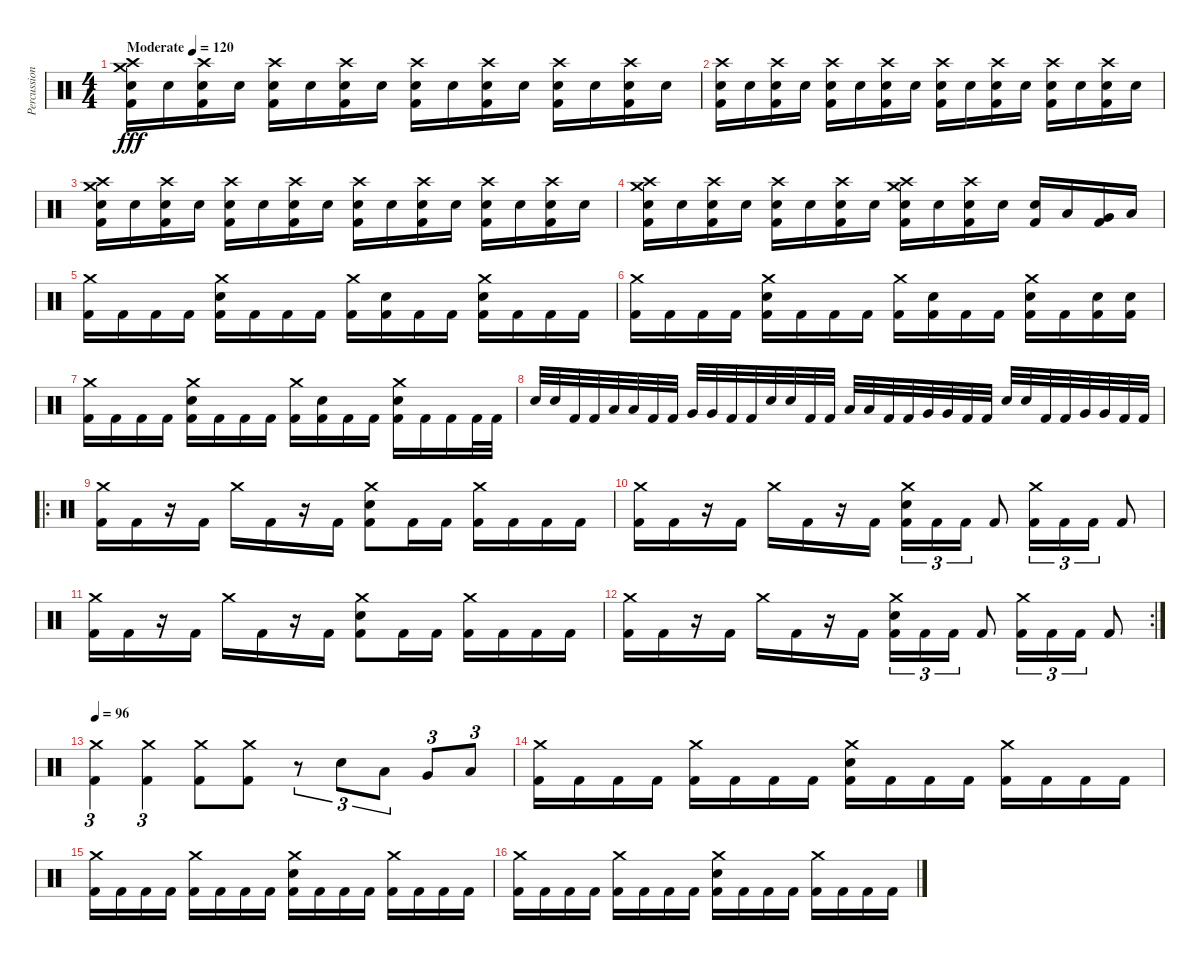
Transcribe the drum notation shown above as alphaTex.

\track ("Percussion" "Percussion") {instrument percussion}
\staff {score}
\articulation defaults
\ts (4 4)
\tempo (120 "Moderate")
\clef neutral
\ks c
("Crash high (hit)" "Crash medium (hit)" "Electric Snare (hit)" "Kick (hit) 2").16{dy fff} "Electric Snare (hit)".16 ("Crash high (hit)" "Electric Snare (hit)" "Kick (hit) 2").16 "Electric Snare (hit)".16 ("Crash high (hit)" "Electric Snare (hit)" "Kick (hit) 2").16 "Electric Snare (hit)".16 ("Crash high (hit)" "Electric Snare (hit)" "Kick (hit) 2").16 "Electric Snare (hit)".16 ("Crash high (hit)" "Electric Snare (hit)" "Kick (hit) 2").16 "Electric Snare (hit)".16 ("Crash high (hit)" "Electric Snare (hit)" "Kick (hit) 2").16 "Electric Snare (hit)".16 ("Crash high (hit)" "Electric Snare (hit)" "Kick (hit) 2").16 "Electric Snare (hit)".16 ("Crash high (hit)" "Electric Snare (hit)" "Kick (hit) 2").16 "Electric Snare (hit)".16 |
("Crash high (hit)" "Electric Snare (hit)" "Kick (hit) 2").16 "Electric Snare (hit)".16 ("Crash high (hit)" "Electric Snare (hit)" "Kick (hit) 2").16 "Electric Snare (hit)".16 ("Crash high (hit)" "Electric Snare (hit)" "Kick (hit) 2").16 "Electric Snare (hit)".16 ("Crash high (hit)" "Electric Snare (hit)" "Kick (hit) 2").16 "Electric Snare (hit)".16 ("Crash high (hit)" "Electric Snare (hit)" "Kick (hit) 2").16 "Electric Snare (hit)".16 ("Crash high (hit)" "Electric Snare (hit)" "Kick (hit) 2").16 "Electric Snare (hit)".16 ("Crash high (hit)" "Electric Snare (hit)" "Kick (hit) 2").16 "Electric Snare (hit)".16 ("Crash high (hit)" "Electric Snare (hit)" "Kick (hit) 2").16 "Electric Snare (hit)".16 |
("Crash high (hit)" "Crash medium (hit)" "Electric Snare (hit)" "Kick (hit) 2").16 "Electric Snare (hit)".16 ("Crash high (hit)" "Electric Snare (hit)" "Kick (hit) 2").16 "Electric Snare (hit)".16 ("Crash high (hit)" "Electric Snare (hit)" "Kick (hit) 2").16 "Electric Snare (hit)".16 ("Crash high (hit)" "Electric Snare (hit)" "Kick (hit) 2").16 "Electric Snare (hit)".16 ("Crash high (hit)" "Electric Snare (hit)" "Kick (hit) 2").16 "Electric Snare (hit)".16 ("Crash high (hit)" "Electric Snare (hit)" "Kick (hit) 2").16 "Electric Snare (hit)".16 ("Crash high (hit)" "Electric Snare (hit)" "Kick (hit) 2").16 "Electric Snare (hit)".16 ("Crash high (hit)" "Electric Snare (hit)" "Kick (hit) 2").16 "Electric Snare (hit)".16 |
("Crash high (hit)" "Crash medium (hit)" "Electric Snare (hit)" "Kick (hit) 2").16 "Electric Snare (hit)".16 ("Crash high (hit)" "Electric Snare (hit)" "Kick (hit) 2").16 "Electric Snare (hit)".16 ("Crash high (hit)" "Electric Snare (hit)" "Kick (hit) 2").16 "Electric Snare (hit)".16 ("Crash high (hit)" "Electric Snare (hit)" "Kick (hit) 2").16 "Electric Snare (hit)".16 ("Crash high (hit)" "Crash medium (hit)" "Electric Snare (hit)" "Kick (hit) 2").16 "Electric Snare (hit)".16 ("Crash high (hit)" "Electric Snare (hit)" "Kick (hit) 2").16 "Electric Snare (hit)".16 ("Electric Snare (hit)" "Kick (hit) 2").16 "Low Tom (hit)".16 ("Very Low Tom (hit)" "Kick (hit) 2").16 "Low Floor Tom (hit)".16 |
("Crash medium (hit)" "Kick (hit) 2").16 "Kick (hit) 2".16 "Kick (hit) 2".16 "Kick (hit) 2".16 ("Crash medium (hit)" "Electric Snare (hit)" "Kick (hit) 2").16 "Kick (hit) 2".16 "Kick (hit) 2".16 "Kick (hit) 2".16 ("Crash medium (hit)" "Kick (hit) 2").16 ("Electric Snare (hit)" "Kick (hit) 2").16 "Kick (hit) 2".16 "Kick (hit) 2".16 ("Crash medium (hit)" "Electric Snare (hit)" "Kick (hit) 2").16 "Kick (hit) 2".16 "Kick (hit) 2".16 "Kick (hit) 2".16 |
("Crash medium (hit)" "Kick (hit) 2").16 "Kick (hit) 2".16 "Kick (hit) 2".16 "Kick (hit) 2".16 ("Crash medium (hit)" "Electric Snare (hit)" "Kick (hit) 2").16 "Kick (hit) 2".16 "Kick (hit) 2".16 "Kick (hit) 2".16 ("Crash medium (hit)" "Kick (hit) 2").16 ("Electric Snare (hit)" "Kick (hit) 2").16 "Kick (hit) 2".16 "Kick (hit) 2".16 ("Crash medium (hit)" "Electric Snare (hit)" "Kick (hit) 2").16 "Kick (hit) 2".16 ("Electric Snare (hit)" "Kick (hit) 2").16 ("Electric Snare (hit)" "Kick (hit) 2").16 |
("Crash medium (hit)" "Kick (hit) 2").16 "Kick (hit) 2".16 "Kick (hit) 2".16 "Kick (hit) 2".16 ("Crash medium (hit)" "Electric Snare (hit)" "Kick (hit) 2").16 "Kick (hit) 2".16 "Kick (hit) 2".16 "Kick (hit) 2".16 ("Crash medium (hit)" "Kick (hit) 2").16 ("Electric Snare (hit)" "Kick (hit) 2").16 "Kick (hit) 2".16 "Kick (hit) 2".16 ("Crash medium (hit)" "Electric Snare (hit)" "Kick (hit) 2").16 "Kick (hit) 2".16 "Kick (hit) 2".16 "Kick (hit) 2".32 "Kick (hit) 2".32 |
"Electric Snare (hit)".32 "Electric Snare (hit)".32 "Kick (hit) 2".32 "Kick (hit) 2".32 "Low Tom (hit)".32 "Low Tom (hit)".32 "Kick (hit) 2".32 "Kick (hit) 2".32 "Very Low Tom (hit)".32 "Very Low Tom (hit)".32 "Kick (hit) 2".32 "Kick (hit) 2".32 "Electric Snare (hit)".32 "Electric Snare (hit)".32 "Kick (hit) 2".32 "Kick (hit) 2".32 "Low Tom (hit)".32 "Low Tom (hit)".32 "Kick (hit) 2".32 "Kick (hit) 2".32 "Very Low Tom (hit)".32 "Very Low Tom (hit)".32 "Kick (hit) 2".32 "Kick (hit) 2".32 "Electric Snare (hit)".32 "Electric Snare (hit)".32 "Kick (hit) 2".32 "Kick (hit) 2".32 "Very Low Tom (hit)".32 "Very Low Tom (hit)".32 "Kick (hit) 2".32 "Kick (hit) 2".32 |
\ro
("Crash medium (hit)" "Kick (hit) 2").16 "Kick (hit) 2".16 r.16 "Kick (hit) 2".16 "Crash medium (hit)".16 "Kick (hit) 2".16 r.16 "Kick (hit) 2".16 ("Crash medium (hit)" "Electric Snare (hit)" "Kick (hit) 2").8 "Kick (hit) 2".16 "Kick (hit) 2".16 ("Crash medium (hit)" "Kick (hit) 2").16 "Kick (hit) 2".16 "Kick (hit) 2".16 "Kick (hit) 2".16 |
("Crash medium (hit)" "Kick (hit) 2").16 "Kick (hit) 2".16 r.16 "Kick (hit) 2".16 "Crash medium (hit)".16 "Kick (hit) 2".16 r.16 "Kick (hit) 2".16 ("Crash medium (hit)" "Electric Snare (hit)" "Kick (hit) 2").16{tu (3 2)} "Kick (hit) 2".16{tu (3 2)} "Kick (hit) 2".16{tu (3 2)} "Kick (hit) 2".8 ("Crash medium (hit)" "Kick (hit) 2").16{tu (3 2)} "Kick (hit) 2".16{tu (3 2)} "Kick (hit) 2".16{tu (3 2)} "Kick (hit) 2".8 |
("Crash medium (hit)" "Kick (hit) 2").16 "Kick (hit) 2".16 r.16 "Kick (hit) 2".16 "Crash medium (hit)".16 "Kick (hit) 2".16 r.16 "Kick (hit) 2".16 ("Crash medium (hit)" "Electric Snare (hit)" "Kick (hit) 2").8 "Kick (hit) 2".16 "Kick (hit) 2".16 ("Crash medium (hit)" "Kick (hit) 2").16 "Kick (hit) 2".16 "Kick (hit) 2".16 "Kick (hit) 2".16 |
\rc 2
("Crash medium (hit)" "Kick (hit) 2").16 "Kick (hit) 2".16 r.16 "Kick (hit) 2".16 "Crash medium (hit)".16 "Kick (hit) 2".16 r.16 "Kick (hit) 2".16 ("Crash medium (hit)" "Electric Snare (hit)" "Kick (hit) 2").16{tu (3 2)} "Kick (hit) 2".16{tu (3 2)} "Kick (hit) 2".16{tu (3 2)} "Kick (hit) 2".8 ("Crash medium (hit)" "Kick (hit) 2").16{tu (3 2)} "Kick (hit) 2".16{tu (3 2)} "Kick (hit) 2".16{tu (3 2)} "Kick (hit) 2".8 |
\tempo 96
("Crash medium (hit)" "Kick (hit) 2").4{tu (3 2)} ("Crash medium (hit)" "Kick (hit) 2").4{tu (3 2)} ("Crash medium (hit)" "Kick (hit) 2").8 ("Crash medium (hit)" "Kick (hit) 2").8 r.8{tu (3 2)} "Electric Snare (hit)".8{tu (3 2)} "Low Tom (hit)".8{tu (3 2)} "Very Low Tom (hit)".8{tu (3 2)} "Low Floor Tom (hit)".8{tu (3 2)} |
("Crash medium (hit)" "Kick (hit) 2").16 "Kick (hit) 2".16 "Kick (hit) 2".16 "Kick (hit) 2".16 ("Crash medium (hit)" "Kick (hit) 2").16 "Kick (hit) 2".16 "Kick (hit) 2".16 "Kick (hit) 2".16 ("Crash medium (hit)" "Electric Snare (hit)" "Kick (hit) 2").16 "Kick (hit) 2".16 "Kick (hit) 2".16 "Kick (hit) 2".16 ("Crash medium (hit)" "Kick (hit) 2").16 "Kick (hit) 2".16 "Kick (hit) 2".16 "Kick (hit) 2".16 |
("Crash medium (hit)" "Kick (hit) 2").16 "Kick (hit) 2".16 "Kick (hit) 2".16 "Kick (hit) 2".16 ("Crash medium (hit)" "Kick (hit) 2").16 "Kick (hit) 2".16 "Kick (hit) 2".16 "Kick (hit) 2".16 ("Crash medium (hit)" "Electric Snare (hit)" "Kick (hit) 2").16 "Kick (hit) 2".16 "Kick (hit) 2".16 "Kick (hit) 2".16 ("Crash medium (hit)" "Kick (hit) 2").16 "Kick (hit) 2".16 "Kick (hit) 2".16 "Kick (hit) 2".16 |
("Crash medium (hit)" "Kick (hit) 2").16 "Kick (hit) 2".16 "Kick (hit) 2".16 "Kick (hit) 2".16 ("Crash medium (hit)" "Kick (hit) 2").16 "Kick (hit) 2".16 "Kick (hit) 2".16 "Kick (hit) 2".16 ("Crash medium (hit)" "Electric Snare (hit)" "Kick (hit) 2").16 "Kick (hit) 2".16 "Kick (hit) 2".16 "Kick (hit) 2".16 ("Crash medium (hit)" "Kick (hit) 2").16 "Kick (hit) 2".16 "Kick (hit) 2".16 "Kick (hit) 2".16
